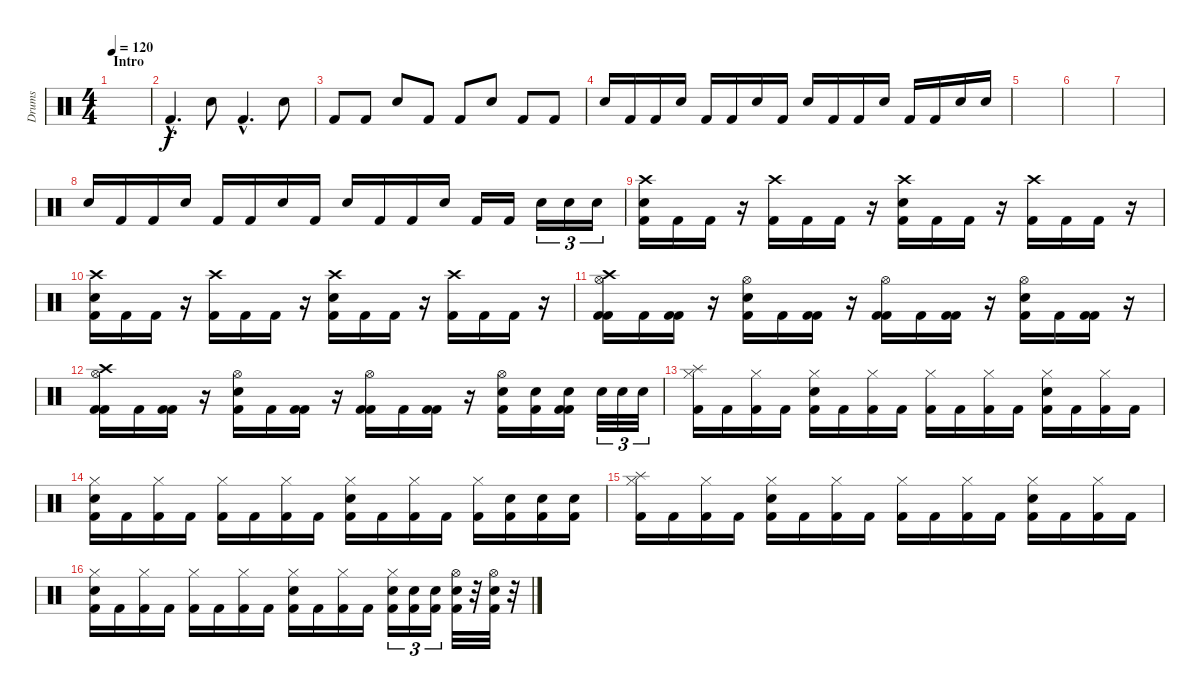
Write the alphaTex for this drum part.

\track ("Drums" "Drums") {instrument percussion}
\staff {score}
\articulation defaults
\ts (4 4)
\section ("" "Intro")
\tempo 120
\clef neutral
\ks c
|
"Kick (hit) 2"{hac}.4{d} "Electric Snare (hit)".8 "Kick (hit) 2"{hac}.4{d} "Electric Snare (hit)".8 |
"Kick (hit) 2".8 "Kick (hit) 2".8 "Electric Snare (hit)".8 "Kick (hit) 2".8 "Kick (hit) 2".8 "Electric Snare (hit)".8 "Kick (hit) 2".8 "Kick (hit) 2".8 |
"Electric Snare (hit)".16 "Kick (hit) 2".16 "Kick (hit) 2".16 "Electric Snare (hit)".16 "Kick (hit) 2".16 "Kick (hit) 2".16 "Electric Snare (hit)".16 "Kick (hit) 2".16 "Electric Snare (hit)".16 "Kick (hit) 2".16 "Kick (hit) 2".16 "Electric Snare (hit)".16 "Kick (hit) 2".16 "Kick (hit) 2".16 "Electric Snare (hit)".16 "Electric Snare (hit)".16 |
|
|
|
"Electric Snare (hit)".16 "Kick (hit) 2".16 "Kick (hit) 2".16 "Electric Snare (hit)".16 "Kick (hit) 2".16 "Kick (hit) 2".16 "Electric Snare (hit)".16 "Kick (hit) 2".16 "Electric Snare (hit)".16 "Kick (hit) 2".16 "Kick (hit) 2".16 "Electric Snare (hit)".16 "Kick (hit) 2".16 "Kick (hit) 2".16 "Electric Snare (hit)".16{tu (3 2)} "Electric Snare (hit)".16{tu (3 2)} "Electric Snare (hit)".16{tu (3 2)} |
("Crash high (hit)" "Electric Snare (hit)" "Kick (hit) 2").16 "Kick (hit) 2".16 "Kick (hit) 2".16 r.16 ("Crash high (hit)" "Kick (hit) 2").16 "Kick (hit) 2".16 "Kick (hit) 2".16 r.16 ("Crash high (hit)" "Electric Snare (hit)" "Kick (hit) 2").16 "Kick (hit) 2".16 "Kick (hit) 2".16 r.16 ("Crash high (hit)" "Kick (hit) 2").16 "Kick (hit) 2".16 "Kick (hit) 2".16 r.16 |
("Crash high (hit)" "Electric Snare (hit)" "Kick (hit) 2").16 "Kick (hit) 2".16 "Kick (hit) 2".16 r.16 ("Crash high (hit)" "Kick (hit) 2").16 "Kick (hit) 2".16 "Kick (hit) 2".16 r.16 ("Crash high (hit)" "Electric Snare (hit)" "Kick (hit) 2").16 "Kick (hit) 2".16 "Kick (hit) 2".16 r.16 ("Crash high (hit)" "Kick (hit) 2").16 "Kick (hit) 2".16 "Kick (hit) 2".16 r.16 |
("Crash high (hit)" "Hi-Hat (open)" "Kick (hit) 2" "Kick (hit) 2").16 "Kick (hit) 2".16 ("Kick (hit) 2" "Kick (hit) 2").16 r.16 ("Hi-Hat (open)" "Electric Snare (hit)" "Kick (hit) 2").16 "Kick (hit) 2".16 ("Kick (hit) 2" "Kick (hit) 2").16 r.16 ("Hi-Hat (open)" "Kick (hit) 2" "Kick (hit) 2").16 "Kick (hit) 2".16 ("Kick (hit) 2" "Kick (hit) 2").16 r.16 ("Hi-Hat (open)" "Electric Snare (hit)" "Kick (hit) 2").16 "Kick (hit) 2".16 ("Kick (hit) 2" "Kick (hit) 2").16 r.16 |
("Crash high (hit)" "Hi-Hat (open)" "Kick (hit) 2" "Kick (hit) 2").16 "Kick (hit) 2".16 ("Kick (hit) 2" "Kick (hit) 2").16 r.16 ("Hi-Hat (open)" "Electric Snare (hit)" "Kick (hit) 2").16 "Kick (hit) 2".16 ("Kick (hit) 2" "Kick (hit) 2").16 r.16 ("Hi-Hat (open)" "Kick (hit) 2" "Kick (hit) 2").16 "Kick (hit) 2".16 ("Kick (hit) 2" "Kick (hit) 2").16 r.16 ("Hi-Hat (open)" "Electric Snare (hit)" "Kick (hit) 2").16 ("Electric Snare (hit)" "Kick (hit) 2").16 ("Electric Snare (hit)" "Kick (hit) 2" "Kick (hit) 2").16 "Electric Snare (hit)".32{tu (3 2)} "Electric Snare (hit)".32{tu (3 2)} "Electric Snare (hit)".32{tu (3 2)} |
("Splash (hit)" "Hi-Hat (closed)" "Kick (hit) 2").16 "Kick (hit) 2".16 ("Hi-Hat (closed)" "Kick (hit) 2").16 "Kick (hit) 2".16 ("Hi-Hat (closed)" "Electric Snare (hit)" "Kick (hit) 2").16 "Kick (hit) 2".16 ("Hi-Hat (closed)" "Kick (hit) 2").16 "Kick (hit) 2".16 ("Hi-Hat (closed)" "Kick (hit) 2").16 "Kick (hit) 2".16 ("Hi-Hat (closed)" "Kick (hit) 2").16 "Kick (hit) 2".16 ("Hi-Hat (closed)" "Electric Snare (hit)" "Kick (hit) 2").16 "Kick (hit) 2".16 ("Hi-Hat (closed)" "Kick (hit) 2").16 "Kick (hit) 2".16 |
("Hi-Hat (closed)" "Electric Snare (hit)" "Kick (hit) 2").16 "Kick (hit) 2".16 ("Hi-Hat (closed)" "Kick (hit) 2").16 "Kick (hit) 2".16 ("Hi-Hat (closed)" "Kick (hit) 2").16 "Kick (hit) 2".16 ("Hi-Hat (closed)" "Kick (hit) 2").16 "Kick (hit) 2".16 ("Hi-Hat (closed)" "Electric Snare (hit)" "Kick (hit) 2").16 "Kick (hit) 2".16 ("Hi-Hat (closed)" "Kick (hit) 2").16 "Kick (hit) 2".16 ("Hi-Hat (closed)" "Kick (hit) 2").16 ("Electric Snare (hit)" "Kick (hit) 2").16 ("Electric Snare (hit)" "Kick (hit) 2").16 ("Electric Snare (hit)" "Kick (hit) 2").16 |
("Splash (hit)" "Hi-Hat (closed)" "Kick (hit) 2").16 "Kick (hit) 2".16 ("Hi-Hat (closed)" "Kick (hit) 2").16 "Kick (hit) 2".16 ("Hi-Hat (closed)" "Electric Snare (hit)" "Kick (hit) 2").16 "Kick (hit) 2".16 ("Hi-Hat (closed)" "Kick (hit) 2").16 "Kick (hit) 2".16 ("Hi-Hat (closed)" "Kick (hit) 2").16 "Kick (hit) 2".16 ("Hi-Hat (closed)" "Kick (hit) 2").16 "Kick (hit) 2".16 ("Hi-Hat (closed)" "Electric Snare (hit)" "Kick (hit) 2").16 "Kick (hit) 2".16 ("Hi-Hat (closed)" "Kick (hit) 2").16 "Kick (hit) 2".16 |
("Hi-Hat (closed)" "Electric Snare (hit)" "Kick (hit) 2").16 "Kick (hit) 2".16 ("Hi-Hat (closed)" "Kick (hit) 2").16 "Kick (hit) 2".16 ("Hi-Hat (closed)" "Kick (hit) 2").16 "Kick (hit) 2".16 ("Hi-Hat (closed)" "Kick (hit) 2").16 "Kick (hit) 2".16 ("Hi-Hat (closed)" "Electric Snare (hit)" "Kick (hit) 2").16 "Kick (hit) 2".16 ("Hi-Hat (closed)" "Kick (hit) 2").16 "Kick (hit) 2".16 ("Hi-Hat (closed)" "Electric Snare (hit)" "Kick (hit) 2").16{tu (3 2)} ("Electric Snare (hit)" "Kick (hit) 2").16{tu (3 2)} ("Electric Snare (hit)" "Kick (hit) 2").16{tu (3 2)} ("Hi-Hat (open)" "Electric Snare (hit)" "Kick (hit) 2").32 r.32 ("Hi-Hat (open)" "Electric Snare (hit)" "Kick (hit) 2").32 r.32
